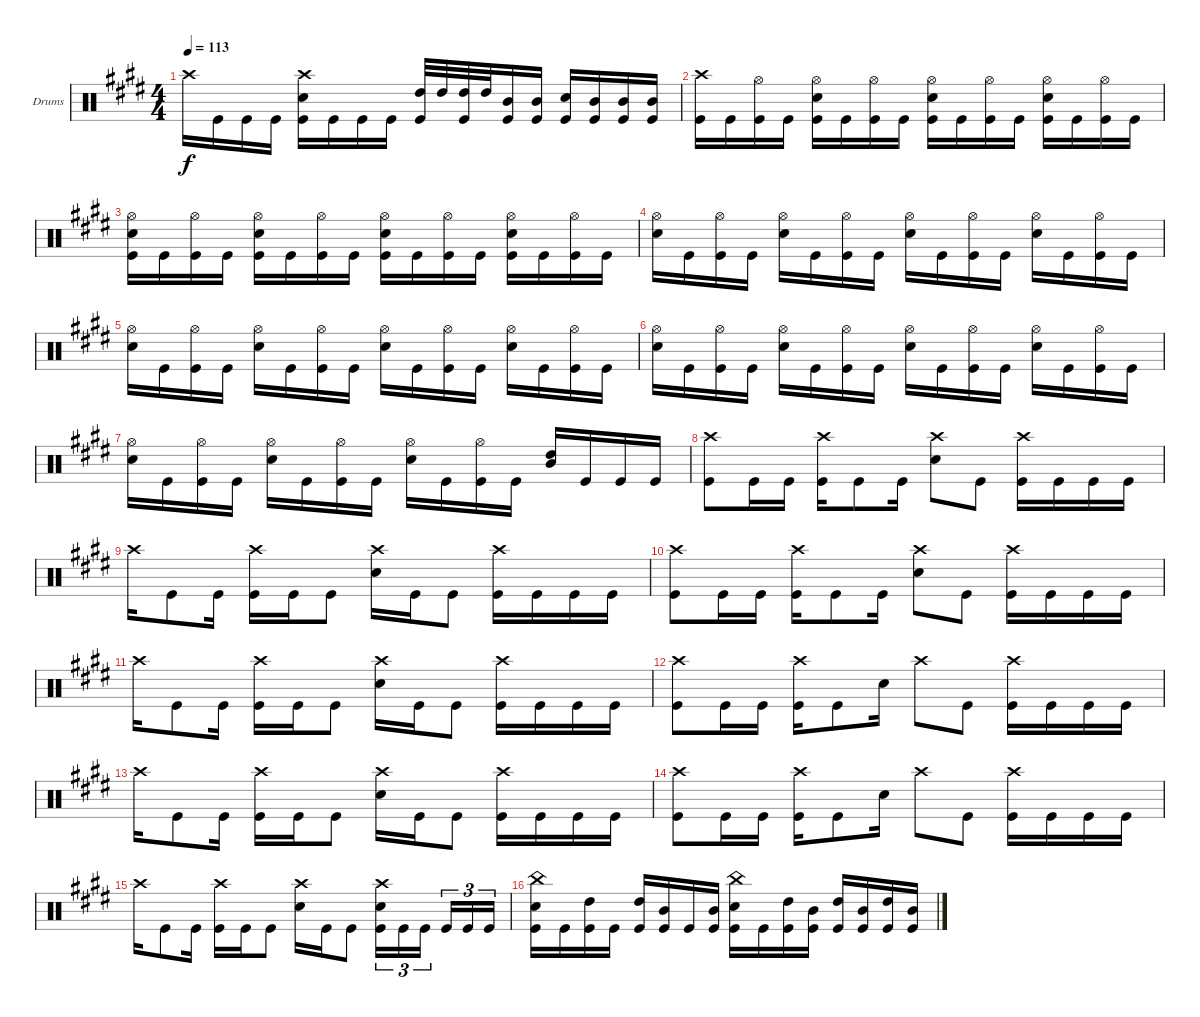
\bracketExtendMode groupsimilarinstruments
\firstSystemTrackNameOrientation horizontal
\otherSystemsTrackNameOrientation horizontal
\track ("Drumkit" "Drums") {instrument percussion}
\staff {score}
\articulation defaults
\ts (4 4)
\tempo 113
\clef neutral
\ks e "Crash high (hit)".16{dy f} "Kick (hit)".16 "Kick (hit)".16 "Kick (hit)".16
("Snare (hit) 2" "Kick (hit)" "Crash high (hit)").16 "Kick (hit)".16 "Kick (hit)".16 "Kick (hit)".16 ("High Tom (hit)" "Kick (hit)").32 "High Tom (hit)".32 ("High Tom (hit)" "Kick (hit)").32 "High Tom (hit)".32 ("Mid Tom (hit)" "Kick (hit)").16 ("Mid Tom (hit)" "Kick (hit)").16 ("Snare (hit) 2" "Kick (hit)").16 ("Mid Tom (hit)" "Kick (hit)").16 ("Mid Tom (hit)" "Kick (hit)").16 ("Mid Tom (hit)" "Kick (hit)").16 |
("Crash high (hit)" "Kick (hit)").16 "Kick (hit)".16 ("Kick (hit)" "Hi-Hat (open)").16 "Kick (hit)".16 ("Snare (hit) 2" "Hi-Hat (open)" "Kick (hit)").16 "Kick (hit)".16 ("Kick (hit)" "Hi-Hat (open)").16 "Kick (hit)".16 ("Snare (hit) 2" "Hi-Hat (open)" "Kick (hit)").16 "Kick (hit)".16 ("Kick (hit)" "Hi-Hat (open)").16 "Kick (hit)".16 ("Snare (hit) 2" "Hi-Hat (open)" "Kick (hit)").16 "Kick (hit)".16 ("Kick (hit)" "Hi-Hat (open)").16 "Kick (hit)".16 |
("Snare (hit) 2" "Hi-Hat (open)" "Kick (hit)").16 "Kick (hit)".16 ("Kick (hit)" "Hi-Hat (open)").16 "Kick (hit)".16 ("Snare (hit) 2" "Hi-Hat (open)" "Kick (hit)").16 "Kick (hit)".16 ("Kick (hit)" "Hi-Hat (open)").16 "Kick (hit)".16 ("Snare (hit) 2" "Hi-Hat (open)" "Kick (hit)").16 "Kick (hit)".16 ("Kick (hit)" "Hi-Hat (open)").16 "Kick (hit)".16 ("Snare (hit) 2" "Hi-Hat (open)" "Kick (hit)").16 "Kick (hit)".16 ("Kick (hit)" "Hi-Hat (open)").16 "Kick (hit)".16 |
("Snare (hit) 2" "Hi-Hat (open)").16 "Kick (hit)".16 ("Kick (hit)" "Hi-Hat (open)").16 "Kick (hit)".16 ("Snare (hit) 2" "Hi-Hat (open)").16 "Kick (hit)".16 ("Kick (hit)" "Hi-Hat (open)").16 "Kick (hit)".16 ("Snare (hit) 2" "Hi-Hat (open)").16 "Kick (hit)".16 ("Kick (hit)" "Hi-Hat (open)").16 "Kick (hit)".16 ("Snare (hit) 2" "Hi-Hat (open)").16 "Kick (hit)".16 ("Kick (hit)" "Hi-Hat (open)").16 "Kick (hit)".16 |
("Snare (hit) 2" "Hi-Hat (open)").16 "Kick (hit)".16 ("Kick (hit)" "Hi-Hat (open)").16 "Kick (hit)".16 ("Snare (hit) 2" "Hi-Hat (open)").16 "Kick (hit)".16 ("Kick (hit)" "Hi-Hat (open)").16 "Kick (hit)".16 ("Snare (hit) 2" "Hi-Hat (open)").16 "Kick (hit)".16 ("Kick (hit)" "Hi-Hat (open)").16 "Kick (hit)".16 ("Snare (hit) 2" "Hi-Hat (open)").16 "Kick (hit)".16 ("Kick (hit)" "Hi-Hat (open)").16 "Kick (hit)".16 |
("Snare (hit) 2" "Hi-Hat (open)").16 "Kick (hit)".16 ("Kick (hit)" "Hi-Hat (open)").16 "Kick (hit)".16 ("Snare (hit) 2" "Hi-Hat (open)").16 "Kick (hit)".16 ("Kick (hit)" "Hi-Hat (open)").16 "Kick (hit)".16 ("Snare (hit) 2" "Hi-Hat (open)").16 "Kick (hit)".16 ("Kick (hit)" "Hi-Hat (open)").16 "Kick (hit)".16 ("Snare (hit) 2" "Hi-Hat (open)").16 "Kick (hit)".16 ("Kick (hit)" "Hi-Hat (open)").16 "Kick (hit)".16 |
("Snare (hit) 2" "Hi-Hat (open)").16 "Kick (hit)".16 ("Kick (hit)" "Hi-Hat (open)").16 "Kick (hit)".16 ("Snare (hit) 2" "Hi-Hat (open)").16 "Kick (hit)".16 ("Kick (hit)" "Hi-Hat (open)").16 "Kick (hit)".16 ("Snare (hit) 2" "Hi-Hat (open)").16 "Kick (hit)".16 ("Kick (hit)" "Hi-Hat (open)").16 "Kick (hit)".16 ("Mid Tom (hit)" "High Tom (hit)").16 "Kick (hit)".16 "Kick (hit)".16 "Kick (hit)".16 |
("Kick (hit)" "Crash high (hit)").8 "Kick (hit)".16 "Kick (hit)".16 ("Kick (hit)" "Crash high (hit)").16 "Kick (hit)".8 "Kick (hit)".16 ("Crash high (hit)" "Snare (hit) 2").8 "Kick (hit)".8 ("Kick (hit)" "Crash high (hit)").16 "Kick (hit)".16 "Kick (hit)".16 "Kick (hit)".16 |
"Crash high (hit)".16 "Kick (hit)".8 "Kick (hit)".16 ("Kick (hit)" "Crash high (hit)").16 "Kick (hit)".16 "Kick (hit)".8 ("Crash high (hit)" "Snare (hit) 2").16 "Kick (hit)".16 "Kick (hit)".8 ("Crash high (hit)" "Kick (hit)").16 "Kick (hit)".16 "Kick (hit)".16 "Kick (hit)".16 |
("Kick (hit)" "Crash high (hit)").8 "Kick (hit)".16 "Kick (hit)".16 ("Kick (hit)" "Crash high (hit)").16 "Kick (hit)".8 "Kick (hit)".16 ("Crash high (hit)" "Snare (hit) 2").8 "Kick (hit)".8 ("Kick (hit)" "Crash high (hit)").16 "Kick (hit)".16 "Kick (hit)".16 "Kick (hit)".16 |
"Crash high (hit)".16 "Kick (hit)".8 "Kick (hit)".16 ("Kick (hit)" "Crash high (hit)").16 "Kick (hit)".16 "Kick (hit)".8 ("Crash high (hit)" "Snare (hit) 2").16 "Kick (hit)".16 "Kick (hit)".8 ("Crash high (hit)" "Kick (hit)").16 "Kick (hit)".16 "Kick (hit)".16 "Kick (hit)".16 |
("Kick (hit)" "Crash high (hit)").8 "Kick (hit)".16 "Kick (hit)".16 ("Kick (hit)" "Crash high (hit)").16 "Kick (hit)".8 "Snare (hit) 2".16 "Crash high (hit)".8 "Kick (hit)".8 ("Kick (hit)" "Crash high (hit)").16 "Kick (hit)".16 "Kick (hit)".16 "Kick (hit)".16 |
"Crash high (hit)".16 "Kick (hit)".8 "Kick (hit)".16 ("Kick (hit)" "Crash high (hit)").16 "Kick (hit)".16 "Kick (hit)".8 ("Crash high (hit)" "Snare (hit) 2").16 "Kick (hit)".16 "Kick (hit)".8 ("Crash high (hit)" "Kick (hit)").16 "Kick (hit)".16 "Kick (hit)".16 "Kick (hit)".16 |
("Kick (hit)" "Crash high (hit)").8 "Kick (hit)".16 "Kick (hit)".16 ("Kick (hit)" "Crash high (hit)").16 "Kick (hit)".8 "Snare (hit) 2".16 "Crash high (hit)".8 "Kick (hit)".8 ("Kick (hit)" "Crash high (hit)").16 "Kick (hit)".16 "Kick (hit)".16 "Kick (hit)".16 |
"Crash high (hit)".16 "Kick (hit)".8 "Kick (hit)".16 ("Kick (hit)" "Crash high (hit)").16 "Kick (hit)".16 "Kick (hit)".8 ("Crash high (hit)" "Snare (hit) 2").16 "Kick (hit)".16 "Kick (hit)".8 ("Crash high (hit)" "Kick (hit)" "Snare (hit) 2").16{tu (3 2)} "Kick (hit)".16{tu (3 2)} "Kick (hit)".16{tu (3 2)} "Kick (hit)".16{tu (3 2)} "Kick (hit)".16{tu (3 2)} "Kick (hit)".16{tu (3 2)} |
("Kick (hit)" "Snare (hit) 2" "China (hit)").16 "Kick (hit)".16 ("Kick (hit)" "High Tom (hit)").16 "Kick (hit)".16 ("Kick (hit)" "High Tom (hit)").16 ("Kick (hit)" "Mid Tom (hit)").16 "Kick (hit)".16 ("Kick (hit)" "Mid Tom (hit)").16 ("Kick (hit)" "Snare (hit) 2" "China (hit)").16 "Kick (hit)".16 ("Kick (hit)" "High Tom (hit)").16 ("Kick (hit)" "Mid Tom (hit)").16 ("Kick (hit)" "High Tom (hit)").16 ("Kick (hit)" "Mid Tom (hit)").16 ("Kick (hit)" "High Tom (hit)").16 ("Kick (hit)" "Mid Tom (hit)").16
